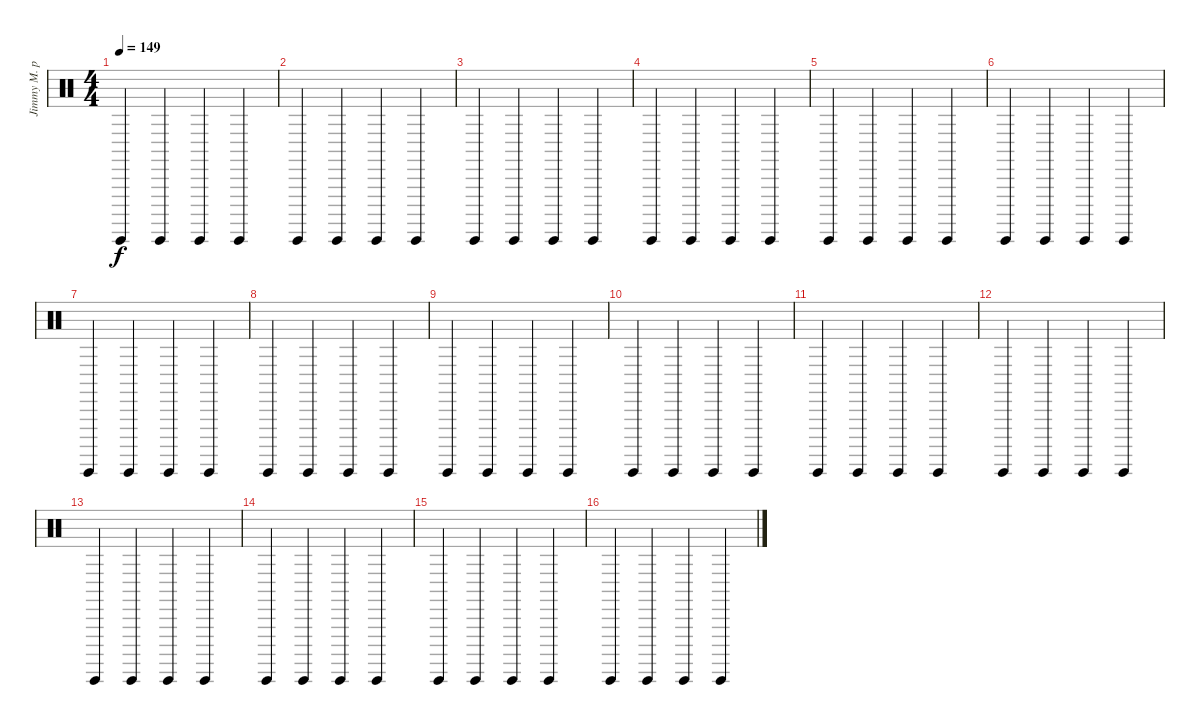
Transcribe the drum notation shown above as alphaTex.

\track ("Jimmy M. percussion" "Jimmy M. p") {instrument percussion}
\staff {score}
\articulation defaults
\ts (4 4)
\tempo 149
\clef neutral
\ks c "Guiro (hit)".4{dy f} "Guiro (hit)".4 "Guiro (hit)".4 "Guiro (hit)".4
|
"Guiro (hit)".4 "Guiro (hit)".4 "Guiro (hit)".4 "Guiro (hit)".4 |
"Guiro (hit)".4 "Guiro (hit)".4 "Guiro (hit)".4 "Guiro (hit)".4 |
"Guiro (hit)".4 "Guiro (hit)".4 "Guiro (hit)".4 "Guiro (hit)".4 |
"Guiro (hit)".4 "Guiro (hit)".4 "Guiro (hit)".4 "Guiro (hit)".4 |
"Guiro (hit)".4 "Guiro (hit)".4 "Guiro (hit)".4 "Guiro (hit)".4 |
"Guiro (hit)".4 "Guiro (hit)".4 "Guiro (hit)".4 "Guiro (hit)".4 |
"Guiro (hit)".4 "Guiro (hit)".4 "Guiro (hit)".4 "Guiro (hit)".4 |
"Guiro (hit)".4 "Guiro (hit)".4 "Guiro (hit)".4 "Guiro (hit)".4 |
"Guiro (hit)".4 "Guiro (hit)".4 "Guiro (hit)".4 "Guiro (hit)".4 |
"Guiro (hit)".4 "Guiro (hit)".4 "Guiro (hit)".4 "Guiro (hit)".4 |
"Guiro (hit)".4 "Guiro (hit)".4 "Guiro (hit)".4 "Guiro (hit)".4 |
"Guiro (hit)".4 "Guiro (hit)".4 "Guiro (hit)".4 "Guiro (hit)".4 |
"Guiro (hit)".4 "Guiro (hit)".4 "Guiro (hit)".4 "Guiro (hit)".4 |
"Guiro (hit)".4 "Guiro (hit)".4 "Guiro (hit)".4 "Guiro (hit)".4 |
"Guiro (hit)".4 "Guiro (hit)".4 "Guiro (hit)".4 "Guiro (hit)".4
